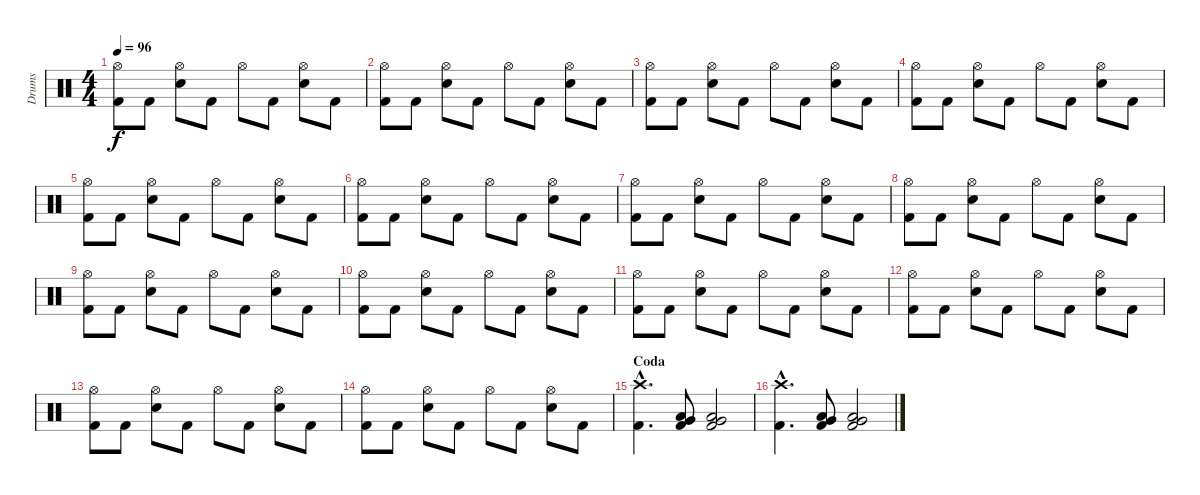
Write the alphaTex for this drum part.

\track ("Drums" "Drums") {instrument percussion}
\staff {score}
\articulation defaults
\ts (4 4)
\tempo 96
\clef neutral
\ks c
("Hi-Hat (open)" "Kick (hit) 2").8{dy f} "Kick (hit) 2".8 ("Hi-Hat (open)" "Snare (hit) 2").8 "Kick (hit) 2".8 "Hi-Hat (open)".8 "Kick (hit) 2".8 ("Hi-Hat (open)" "Snare (hit) 2").8 "Kick (hit) 2".8 |
("Hi-Hat (open)" "Kick (hit) 2").8 "Kick (hit) 2".8 ("Hi-Hat (open)" "Snare (hit) 2").8 "Kick (hit) 2".8 "Hi-Hat (open)".8 "Kick (hit) 2".8 ("Hi-Hat (open)" "Snare (hit) 2").8 "Kick (hit) 2".8 |
("Hi-Hat (open)" "Kick (hit) 2").8 "Kick (hit) 2".8 ("Hi-Hat (open)" "Snare (hit) 2").8 "Kick (hit) 2".8 "Hi-Hat (open)".8 "Kick (hit) 2".8 ("Hi-Hat (open)" "Snare (hit) 2").8 "Kick (hit) 2".8 |
("Hi-Hat (open)" "Kick (hit) 2").8 "Kick (hit) 2".8 ("Hi-Hat (open)" "Snare (hit) 2").8 "Kick (hit) 2".8 "Hi-Hat (open)".8 "Kick (hit) 2".8 ("Hi-Hat (open)" "Snare (hit) 2").8 "Kick (hit) 2".8 |
("Hi-Hat (open)" "Kick (hit) 2").8 "Kick (hit) 2".8 ("Hi-Hat (open)" "Snare (hit) 2").8 "Kick (hit) 2".8 "Hi-Hat (open)".8 "Kick (hit) 2".8 ("Hi-Hat (open)" "Snare (hit) 2").8 "Kick (hit) 2".8 |
("Hi-Hat (open)" "Kick (hit) 2").8 "Kick (hit) 2".8 ("Hi-Hat (open)" "Snare (hit) 2").8 "Kick (hit) 2".8 "Hi-Hat (open)".8 "Kick (hit) 2".8 ("Hi-Hat (open)" "Snare (hit) 2").8 "Kick (hit) 2".8 |
("Hi-Hat (open)" "Kick (hit) 2").8 "Kick (hit) 2".8 ("Hi-Hat (open)" "Snare (hit) 2").8 "Kick (hit) 2".8 "Hi-Hat (open)".8 "Kick (hit) 2".8 ("Hi-Hat (open)" "Snare (hit) 2").8 "Kick (hit) 2".8 |
("Hi-Hat (open)" "Kick (hit) 2").8 "Kick (hit) 2".8 ("Hi-Hat (open)" "Snare (hit) 2").8 "Kick (hit) 2".8 "Hi-Hat (open)".8 "Kick (hit) 2".8 ("Hi-Hat (open)" "Snare (hit) 2").8 "Kick (hit) 2".8 |
("Hi-Hat (open)" "Kick (hit) 2").8 "Kick (hit) 2".8 ("Hi-Hat (open)" "Snare (hit) 2").8 "Kick (hit) 2".8 "Hi-Hat (open)".8 "Kick (hit) 2".8 ("Hi-Hat (open)" "Snare (hit) 2").8 "Kick (hit) 2".8 |
("Hi-Hat (open)" "Kick (hit) 2").8 "Kick (hit) 2".8 ("Hi-Hat (open)" "Snare (hit) 2").8 "Kick (hit) 2".8 "Hi-Hat (open)".8 "Kick (hit) 2".8 ("Hi-Hat (open)" "Snare (hit) 2").8 "Kick (hit) 2".8 |
("Hi-Hat (open)" "Kick (hit) 2").8 "Kick (hit) 2".8 ("Hi-Hat (open)" "Snare (hit) 2").8 "Kick (hit) 2".8 "Hi-Hat (open)".8 "Kick (hit) 2".8 ("Hi-Hat (open)" "Snare (hit) 2").8 "Kick (hit) 2".8 |
("Hi-Hat (open)" "Kick (hit) 2").8 "Kick (hit) 2".8 ("Hi-Hat (open)" "Snare (hit) 2").8 "Kick (hit) 2".8 "Hi-Hat (open)".8 "Kick (hit) 2".8 ("Hi-Hat (open)" "Snare (hit) 2").8 "Kick (hit) 2".8 |
("Hi-Hat (open)" "Kick (hit) 2").8 "Kick (hit) 2".8 ("Hi-Hat (open)" "Snare (hit) 2").8 "Kick (hit) 2".8 "Hi-Hat (open)".8 "Kick (hit) 2".8 ("Hi-Hat (open)" "Snare (hit) 2").8 "Kick (hit) 2".8 |
("Hi-Hat (open)" "Kick (hit) 2").8 "Kick (hit) 2".8 ("Hi-Hat (open)" "Snare (hit) 2").8 "Kick (hit) 2".8 "Hi-Hat (open)".8 "Kick (hit) 2".8 ("Hi-Hat (open)" "Snare (hit) 2").8 "Kick (hit) 2".8 |
\section ("" "Coda")
("Crash high (hit)"{hac} "Kick (hit) 2"{hac}).4{d} ("Very Low Tom (hit)" "Low Tom (hit)" "Kick (hit) 2").8 ("Very Low Tom (hit)" "Low Tom (hit)" "Kick (hit) 2").2 |
("Crash high (hit)"{hac} "Kick (hit) 2"{hac}).4{d} ("Very Low Tom (hit)" "Low Tom (hit)" "Kick (hit) 2").8 ("Very Low Tom (hit)" "Low Tom (hit)" "Kick (hit) 2").2
